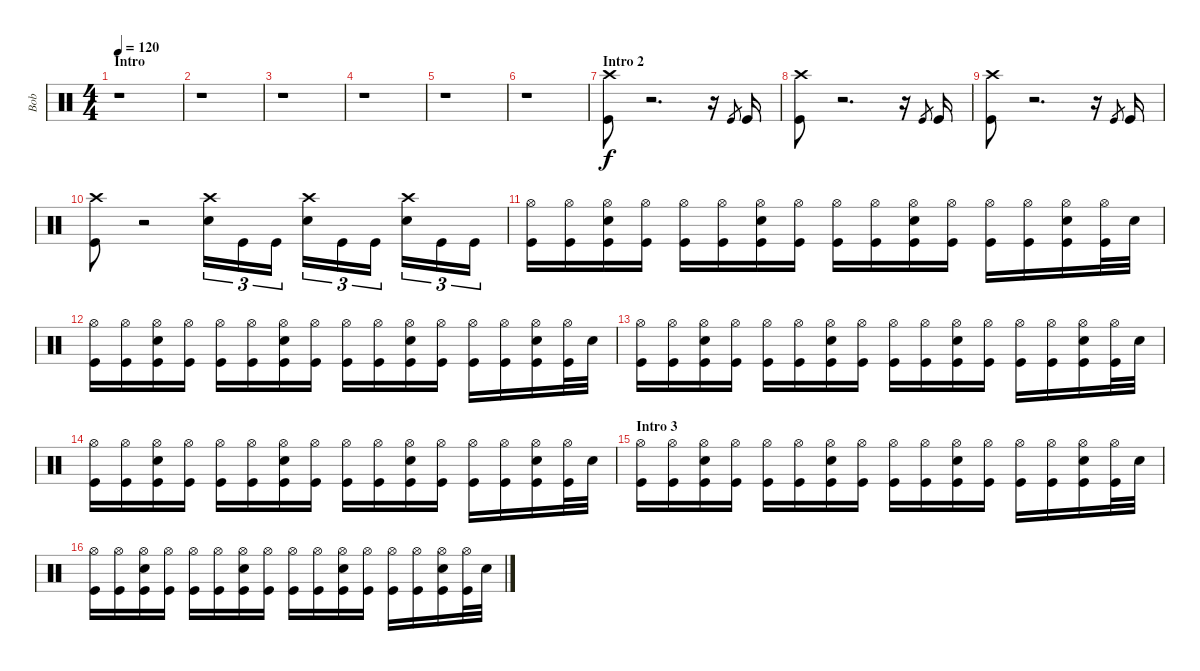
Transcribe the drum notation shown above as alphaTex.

\track ("Bob" "Bob") {instrument percussion}
\staff {score}
\articulation defaults
\ts (4 4)
\section ("" "Intro")
\tempo 120
\clef neutral
\ks c
r.1{dy f} |
r.1 |
r.1 |
r.1 |
r.1 |
r.1 |
\section ("" "Intro 2")
("Crash high (hit)" "Kick (hit)").8 r.2{d} r.16 "Kick (hit)".8{gr} "Kick (hit)".16 |
("Crash high (hit)" "Kick (hit)").8 r.2{d} r.16 "Kick (hit)".8{gr} "Kick (hit)".16 |
("Crash high (hit)" "Kick (hit)").8 r.2{d} r.16 "Kick (hit)".8{gr} "Kick (hit)".16 |
("Crash high (hit)" "Kick (hit)").8 r.2 ("Crash high (hit)" "Snare (hit) 2").16{tu (3 2)} "Kick (hit)".16{tu (3 2)} "Kick (hit)".16{tu (3 2)} ("Crash high (hit)" "Snare (hit) 2").16{tu (3 2)} "Kick (hit)".16{tu (3 2)} "Kick (hit)".16{tu (3 2)} ("Crash high (hit)" "Snare (hit) 2").16{tu (3 2)} "Kick (hit)".16{tu (3 2)} "Kick (hit)".16{tu (3 2)} |
("Hi-Hat (open)" "Kick (hit)").16 ("Hi-Hat (open)" "Kick (hit)").16 ("Hi-Hat (open)" "Snare (hit) 2" "Kick (hit)").16 ("Hi-Hat (open)" "Kick (hit)").16 ("Hi-Hat (open)" "Kick (hit)").16 ("Hi-Hat (open)" "Kick (hit)").16 ("Hi-Hat (open)" "Snare (hit) 2" "Kick (hit)").16 ("Hi-Hat (open)" "Kick (hit)").16 ("Hi-Hat (open)" "Kick (hit)").16 ("Hi-Hat (open)" "Kick (hit)").16 ("Hi-Hat (open)" "Snare (hit) 2" "Kick (hit)").16 ("Hi-Hat (open)" "Kick (hit)").16 ("Hi-Hat (open)" "Kick (hit)").16 ("Hi-Hat (open)" "Kick (hit)").16 ("Hi-Hat (open)" "Snare (hit) 2" "Kick (hit)").16 ("Hi-Hat (open)" "Kick (hit)").32 "Snare (hit) 2".32 |
("Hi-Hat (open)" "Kick (hit)").16 ("Hi-Hat (open)" "Kick (hit)").16 ("Hi-Hat (open)" "Snare (hit) 2" "Kick (hit)").16 ("Hi-Hat (open)" "Kick (hit)").16 ("Hi-Hat (open)" "Kick (hit)").16 ("Hi-Hat (open)" "Kick (hit)").16 ("Hi-Hat (open)" "Snare (hit) 2" "Kick (hit)").16 ("Hi-Hat (open)" "Kick (hit)").16 ("Hi-Hat (open)" "Kick (hit)").16 ("Hi-Hat (open)" "Kick (hit)").16 ("Hi-Hat (open)" "Snare (hit) 2" "Kick (hit)").16 ("Hi-Hat (open)" "Kick (hit)").16 ("Hi-Hat (open)" "Kick (hit)").16 ("Hi-Hat (open)" "Kick (hit)").16 ("Hi-Hat (open)" "Snare (hit) 2" "Kick (hit)").16 ("Hi-Hat (open)" "Kick (hit)").32 "Snare (hit) 2".32 |
("Hi-Hat (open)" "Kick (hit)").16 ("Hi-Hat (open)" "Kick (hit)").16 ("Hi-Hat (open)" "Snare (hit) 2" "Kick (hit)").16 ("Hi-Hat (open)" "Kick (hit)").16 ("Hi-Hat (open)" "Kick (hit)").16 ("Hi-Hat (open)" "Kick (hit)").16 ("Hi-Hat (open)" "Snare (hit) 2" "Kick (hit)").16 ("Hi-Hat (open)" "Kick (hit)").16 ("Hi-Hat (open)" "Kick (hit)").16 ("Hi-Hat (open)" "Kick (hit)").16 ("Hi-Hat (open)" "Snare (hit) 2" "Kick (hit)").16 ("Hi-Hat (open)" "Kick (hit)").16 ("Hi-Hat (open)" "Kick (hit)").16 ("Hi-Hat (open)" "Kick (hit)").16 ("Hi-Hat (open)" "Snare (hit) 2" "Kick (hit)").16 ("Hi-Hat (open)" "Kick (hit)").32 "Snare (hit) 2".32 |
("Hi-Hat (open)" "Kick (hit)").16 ("Hi-Hat (open)" "Kick (hit)").16 ("Hi-Hat (open)" "Snare (hit) 2" "Kick (hit)").16 ("Hi-Hat (open)" "Kick (hit)").16 ("Hi-Hat (open)" "Kick (hit)").16 ("Hi-Hat (open)" "Kick (hit)").16 ("Hi-Hat (open)" "Snare (hit) 2" "Kick (hit)").16 ("Hi-Hat (open)" "Kick (hit)").16 ("Hi-Hat (open)" "Kick (hit)").16 ("Hi-Hat (open)" "Kick (hit)").16 ("Hi-Hat (open)" "Snare (hit) 2" "Kick (hit)").16 ("Hi-Hat (open)" "Kick (hit)").16 ("Hi-Hat (open)" "Kick (hit)").16 ("Hi-Hat (open)" "Kick (hit)").16 ("Hi-Hat (open)" "Snare (hit) 2" "Kick (hit)").16 ("Hi-Hat (open)" "Kick (hit)").32 "Snare (hit) 2".32 |
\section ("" "Intro 3")
("Hi-Hat (open)" "Kick (hit)").16 ("Hi-Hat (open)" "Kick (hit)").16 ("Hi-Hat (open)" "Snare (hit) 2" "Kick (hit)").16 ("Hi-Hat (open)" "Kick (hit)").16 ("Hi-Hat (open)" "Kick (hit)").16 ("Hi-Hat (open)" "Kick (hit)").16 ("Hi-Hat (open)" "Snare (hit) 2" "Kick (hit)").16 ("Hi-Hat (open)" "Kick (hit)").16 ("Hi-Hat (open)" "Kick (hit)").16 ("Hi-Hat (open)" "Kick (hit)").16 ("Hi-Hat (open)" "Snare (hit) 2" "Kick (hit)").16 ("Hi-Hat (open)" "Kick (hit)").16 ("Hi-Hat (open)" "Kick (hit)").16 ("Hi-Hat (open)" "Kick (hit)").16 ("Hi-Hat (open)" "Snare (hit) 2" "Kick (hit)").16 ("Hi-Hat (open)" "Kick (hit)").32 "Snare (hit) 2".32 |
("Hi-Hat (open)" "Kick (hit)").16 ("Hi-Hat (open)" "Kick (hit)").16 ("Hi-Hat (open)" "Snare (hit) 2" "Kick (hit)").16 ("Hi-Hat (open)" "Kick (hit)").16 ("Hi-Hat (open)" "Kick (hit)").16 ("Hi-Hat (open)" "Kick (hit)").16 ("Hi-Hat (open)" "Snare (hit) 2" "Kick (hit)").16 ("Hi-Hat (open)" "Kick (hit)").16 ("Hi-Hat (open)" "Kick (hit)").16 ("Hi-Hat (open)" "Kick (hit)").16 ("Hi-Hat (open)" "Snare (hit) 2" "Kick (hit)").16 ("Hi-Hat (open)" "Kick (hit)").16 ("Hi-Hat (open)" "Kick (hit)").16 ("Hi-Hat (open)" "Kick (hit)").16 ("Hi-Hat (open)" "Snare (hit) 2" "Kick (hit)").16 ("Hi-Hat (open)" "Kick (hit)").32 "Snare (hit) 2".32
